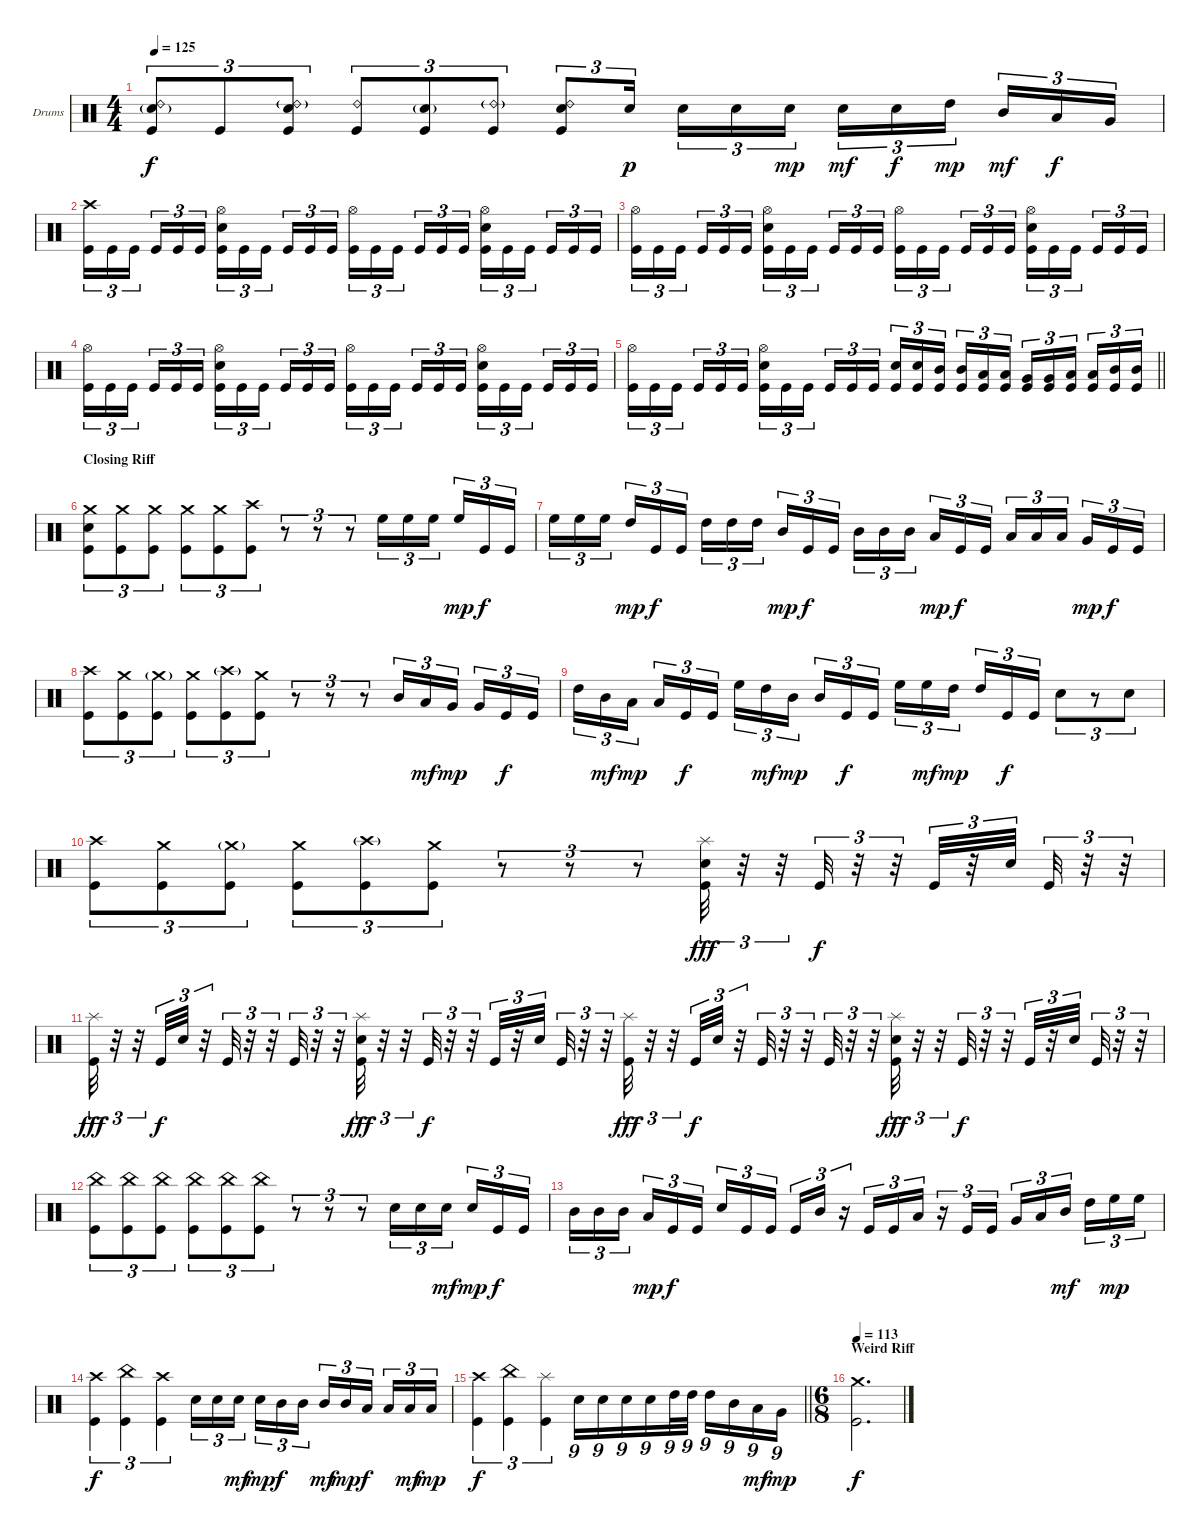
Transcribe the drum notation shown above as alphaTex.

\bracketExtendMode nobrackets
\firstSystemTrackNameOrientation horizontal
\otherSystemsTrackNameOrientation horizontal
\track ("Drumkit" "Drums") {instrument percussion}
\staff {score}
\articulation defaults
\ts (4 4)
\tempo 125
\clef neutral
\ks c
("Ride (bell) 2" "Snare (hit) 2"{g} "Kick (hit)").8{tu (3 2) dy f} "Kick (hit)".8{tu (3 2)} ("Ride (bell) 2"{g} "Snare (hit) 2" "Kick (hit)").8{tu (3 2)} ("Ride (bell) 2" "Kick (hit)").8{tu (3 2)} ("Snare (hit) 2"{g} "Kick (hit)").8{tu (3 2)} ("Ride (bell) 2"{g} "Kick (hit)").8{tu (3 2)} ("Ride (bell) 2" "Snare (hit) 2" "Kick (hit)").8{tu (3 2)} "Snare (hit) 2".16{tu (3 2) dy p} "Snare (hit) 2".16{tu (3 2)} "Snare (hit) 2".16{tu (3 2)} "Snare (hit) 2".16{tu (3 2) dy mp} "Snare (hit) 2".16{tu (3 2) dy mf} "Snare (hit) 2".16{tu (3 2) dy f} "High Tom (hit)".16{tu (3 2) dy mp} "Mid Tom (hit)".16{tu (3 2) dy mf} "Low Tom (hit)".16{tu (3 2) dy f} "Very Low Tom (hit)".16{tu (3 2)} |
("Crash high (hit)" "Kick (hit)").16{tu (3 2)} "Kick (hit)".16{tu (3 2)} "Kick (hit)".16{tu (3 2)} "Kick (hit)".16{tu (3 2)} "Kick (hit)".16{tu (3 2)} "Kick (hit)".16{tu (3 2)} ("Hi-Hat (open)" "Snare (hit) 2" "Kick (hit)").16{tu (3 2)} "Kick (hit)".16{tu (3 2)} "Kick (hit)".16{tu (3 2)} "Kick (hit)".16{tu (3 2)} "Kick (hit)".16{tu (3 2)} "Kick (hit)".16{tu (3 2)} ("Hi-Hat (open)" "Kick (hit)").16{tu (3 2)} "Kick (hit)".16{tu (3 2)} "Kick (hit)".16{tu (3 2)} "Kick (hit)".16{tu (3 2)} "Kick (hit)".16{tu (3 2)} "Kick (hit)".16{tu (3 2)} ("Hi-Hat (open)" "Snare (hit) 2" "Kick (hit)").16{tu (3 2)} "Kick (hit)".16{tu (3 2)} "Kick (hit)".16{tu (3 2)} "Kick (hit)".16{tu (3 2)} "Kick (hit)".16{tu (3 2)} "Kick (hit)".16{tu (3 2)} |
("Hi-Hat (open)" "Kick (hit)").16{tu (3 2)} "Kick (hit)".16{tu (3 2)} "Kick (hit)".16{tu (3 2)} "Kick (hit)".16{tu (3 2)} "Kick (hit)".16{tu (3 2)} "Kick (hit)".16{tu (3 2)} ("Hi-Hat (open)" "Snare (hit) 2" "Kick (hit)").16{tu (3 2)} "Kick (hit)".16{tu (3 2)} "Kick (hit)".16{tu (3 2)} "Kick (hit)".16{tu (3 2)} "Kick (hit)".16{tu (3 2)} "Kick (hit)".16{tu (3 2)} ("Hi-Hat (open)" "Kick (hit)").16{tu (3 2)} "Kick (hit)".16{tu (3 2)} "Kick (hit)".16{tu (3 2)} "Kick (hit)".16{tu (3 2)} "Kick (hit)".16{tu (3 2)} "Kick (hit)".16{tu (3 2)} ("Hi-Hat (open)" "Snare (hit) 2" "Kick (hit)").16{tu (3 2)} "Kick (hit)".16{tu (3 2)} "Kick (hit)".16{tu (3 2)} "Kick (hit)".16{tu (3 2)} "Kick (hit)".16{tu (3 2)} "Kick (hit)".16{tu (3 2)} |
("Hi-Hat (open)" "Kick (hit)").16{tu (3 2)} "Kick (hit)".16{tu (3 2)} "Kick (hit)".16{tu (3 2)} "Kick (hit)".16{tu (3 2)} "Kick (hit)".16{tu (3 2)} "Kick (hit)".16{tu (3 2)} ("Hi-Hat (open)" "Snare (hit) 2" "Kick (hit)").16{tu (3 2)} "Kick (hit)".16{tu (3 2)} "Kick (hit)".16{tu (3 2)} "Kick (hit)".16{tu (3 2)} "Kick (hit)".16{tu (3 2)} "Kick (hit)".16{tu (3 2)} ("Hi-Hat (open)" "Kick (hit)").16{tu (3 2)} "Kick (hit)".16{tu (3 2)} "Kick (hit)".16{tu (3 2)} "Kick (hit)".16{tu (3 2)} "Kick (hit)".16{tu (3 2)} "Kick (hit)".16{tu (3 2)} ("Hi-Hat (open)" "Snare (hit) 2" "Kick (hit)").16{tu (3 2)} "Kick (hit)".16{tu (3 2)} "Kick (hit)".16{tu (3 2)} "Kick (hit)".16{tu (3 2)} "Kick (hit)".16{tu (3 2)} "Kick (hit)".16{tu (3 2)} |
\barLineRight lightlight
("Hi-Hat (open)" "Kick (hit)").16{tu (3 2)} "Kick (hit)".16{tu (3 2)} "Kick (hit)".16{tu (3 2)} "Kick (hit)".16{tu (3 2)} "Kick (hit)".16{tu (3 2)} "Kick (hit)".16{tu (3 2)} ("Hi-Hat (open)" "Snare (hit) 2" "Kick (hit)").16{tu (3 2)} "Kick (hit)".16{tu (3 2)} "Kick (hit)".16{tu (3 2)} "Kick (hit)".16{tu (3 2)} "Kick (hit)".16{tu (3 2)} "Kick (hit)".16{tu (3 2)} ("Snare (hit) 2" "Kick (hit)").16{tu (3 2)} ("Snare (hit) 2" "Kick (hit)").16{tu (3 2)} ("Mid Tom (hit)" "Kick (hit)").16{tu (3 2)} ("Mid Tom (hit)" "Kick (hit)").16{tu (3 2)} ("Low Tom (hit)" "Kick (hit)").16{tu (3 2)} ("Low Tom (hit)" "Kick (hit)").16{tu (3 2)} ("Very Low Tom (hit)" "Kick (hit)").16{tu (3 2)} ("Very Low Tom (hit)" "Kick (hit)").16{tu (3 2)} ("Low Tom (hit)" "Kick (hit)").16{tu (3 2)} ("Low Tom (hit)" "Kick (hit)").16{tu (3 2)} ("Mid Tom (hit)" "Kick (hit)").16{tu (3 2)} ("Mid Tom (hit)" "Kick (hit)").16{tu (3 2)} |
\section ("" "Closing Riff")
("Crash medium (hit)" "Snare (hit) 2" "Kick (hit)").8{tu (3 2)} ("Crash medium (hit)" "Kick (hit)").8{tu (3 2)} ("Crash medium (hit)" "Kick (hit)").8{tu (3 2)} ("Crash medium (hit)" "Kick (hit)").8{tu (3 2)} ("Crash medium (hit)" "Kick (hit)").8{tu (3 2)} ("Crash high (hit)" "Kick (hit)").8{tu (3 2)} r.8{tu (3 2)} r.8{tu (3 2)} r.8{tu (3 2)} "High Floor Tom (hit)".16{tu (3 2)} "High Floor Tom (hit)".16{tu (3 2)} "High Floor Tom (hit)".16{tu (3 2)} "High Floor Tom (hit)".16{tu (3 2) dy mp} "Kick (hit)".16{tu (3 2) dy f} "Kick (hit)".16{tu (3 2)} |
"High Floor Tom (hit)".16{tu (3 2)} "High Floor Tom (hit)".16{tu (3 2)} "High Floor Tom (hit)".16{tu (3 2)} "High Tom (hit)".16{tu (3 2) dy mp} "Kick (hit)".16{tu (3 2) dy f} "Kick (hit)".16{tu (3 2)} "High Tom (hit)".16{tu (3 2)} "High Tom (hit)".16{tu (3 2)} "High Tom (hit)".16{tu (3 2)} "Mid Tom (hit)".16{tu (3 2) dy mp} "Kick (hit)".16{tu (3 2) dy f} "Kick (hit)".16{tu (3 2)} "Mid Tom (hit)".16{tu (3 2)} "Mid Tom (hit)".16{tu (3 2)} "Mid Tom (hit)".16{tu (3 2)} "Low Tom (hit)".16{tu (3 2) dy mp} "Kick (hit)".16{tu (3 2) dy f} "Kick (hit)".16{tu (3 2)} "Low Tom (hit)".16{tu (3 2)} "Low Tom (hit)".16{tu (3 2)} "Low Tom (hit)".16{tu (3 2)} "Very Low Tom (hit)".16{tu (3 2) dy mp} "Kick (hit)".16{tu (3 2) dy f} "Kick (hit)".16{tu (3 2)} |
("Crash high (hit)" "Kick (hit)").8{tu (3 2)} ("Crash medium (hit)" "Kick (hit)").8{tu (3 2)} ("Crash medium (hit)"{g} "Kick (hit)").8{tu (3 2)} ("Crash medium (hit)" "Kick (hit)").8{tu (3 2)} ("Crash high (hit)"{g} "Kick (hit)").8{tu (3 2)} ("Crash medium (hit)" "Kick (hit)").8{tu (3 2)} r.8{tu (3 2)} r.8{tu (3 2)} r.8{tu (3 2)} "Mid Tom (hit)".16{tu (3 2)} "Low Tom (hit)".16{tu (3 2) dy mf} "Very Low Tom (hit)".16{tu (3 2) dy mp} "Very Low Tom (hit)".16{tu (3 2)} "Kick (hit)".16{tu (3 2) dy f} "Kick (hit)".16{tu (3 2)} |
"High Tom (hit)".16{tu (3 2)} "Mid Tom (hit)".16{tu (3 2) dy mf} "Low Tom (hit)".16{tu (3 2) dy mp} "Low Tom (hit)".16{tu (3 2)} "Kick (hit)".16{tu (3 2) dy f} "Kick (hit)".16{tu (3 2)} "High Floor Tom (hit)".16{tu (3 2)} "High Tom (hit)".16{tu (3 2) dy mf} "Mid Tom (hit)".16{tu (3 2) dy mp} "Mid Tom (hit)".16{tu (3 2)} "Kick (hit)".16{tu (3 2) dy f} "Kick (hit)".16{tu (3 2)} "High Floor Tom (hit)".16{tu (3 2)} "High Floor Tom (hit)".16{tu (3 2) dy mf} "High Tom (hit)".16{tu (3 2) dy mp} "High Tom (hit)".16{tu (3 2)} "Kick (hit)".16{tu (3 2) dy f} "Kick (hit)".16{tu (3 2)} "Snare (hit) 2".8{tu (3 2)} r.8{tu (3 2)} "Snare (hit) 2".8{tu (3 2)} |
("Crash high (hit)" "Kick (hit)").8{tu (3 2)} ("Crash medium (hit)" "Kick (hit)").8{tu (3 2)} ("Crash medium (hit)"{g} "Kick (hit)").8{tu (3 2)} ("Crash medium (hit)" "Kick (hit)").8{tu (3 2)} ("Crash high (hit)"{g} "Kick (hit)").8{tu (3 2)} ("Crash medium (hit)" "Kick (hit)").8{tu (3 2)} r.8{tu (3 2)} r.8{tu (3 2)} r.8{tu (3 2)} ("Splash (hit)" "Snare (hit) 2" "Kick (hit)").32{tu (3 2) dy fff} r.32{tu (3 2)} r.32{tu (3 2)} "Kick (hit)".32{tu (3 2) dy f} r.32{tu (3 2)} r.32{tu (3 2)} "Kick (hit)".32{tu (3 2)} r.32{tu (3 2)} "Snare (hit) 2".32{tu (3 2)} "Kick (hit)".32{tu (3 2)} r.32{tu (3 2)} r.32{tu (3 2)} |
("Splash (hit)" "Kick (hit)").32{tu (3 2) dy fff} r.32{tu (3 2)} r.32{tu (3 2)} "Kick (hit)".32{tu (3 2) dy f} "Snare (hit) 2".32{tu (3 2)} r.32{tu (3 2)} "Kick (hit)".32{tu (3 2)} r.32{tu (3 2)} r.32{tu (3 2)} "Kick (hit)".32{tu (3 2)} r.32{tu (3 2)} r.32{tu (3 2)} ("Splash (hit)" "Snare (hit) 2" "Kick (hit)").32{tu (3 2) dy fff} r.32{tu (3 2)} r.32{tu (3 2)} "Kick (hit)".32{tu (3 2) dy f} r.32{tu (3 2)} r.32{tu (3 2)} "Kick (hit)".32{tu (3 2)} r.32{tu (3 2)} "Snare (hit) 2".32{tu (3 2)} "Kick (hit)".32{tu (3 2)} r.32{tu (3 2)} r.32{tu (3 2)} ("Splash (hit)" "Kick (hit)").32{tu (3 2) dy fff} r.32{tu (3 2)} r.32{tu (3 2)} "Kick (hit)".32{tu (3 2) dy f} "Snare (hit) 2".32{tu (3 2)} r.32{tu (3 2)} "Kick (hit)".32{tu (3 2)} r.32{tu (3 2)} r.32{tu (3 2)} "Kick (hit)".32{tu (3 2)} r.32{tu (3 2)} r.32{tu (3 2)} ("Splash (hit)" "Snare (hit) 2" "Kick (hit)").32{tu (3 2) dy fff} r.32{tu (3 2)} r.32{tu (3 2)} "Kick (hit)".32{tu (3 2) dy f} r.32{tu (3 2)} r.32{tu (3 2)} "Kick (hit)".32{tu (3 2)} r.32{tu (3 2)} "Snare (hit) 2".32{tu (3 2)} "Kick (hit)".32{tu (3 2)} r.32{tu (3 2)} r.32{tu (3 2)} |
("China (hit)" "Kick (hit)").8{tu (3 2)} ("China (hit)" "Kick (hit)").8{tu (3 2)} ("China (hit)" "Kick (hit)").8{tu (3 2)} ("China (hit)" "Kick (hit)").8{tu (3 2)} ("China (hit)" "Kick (hit)").8{tu (3 2)} ("China (hit)" "Kick (hit)").8{tu (3 2)} r.8{tu (3 2)} r.8{tu (3 2)} r.8{tu (3 2)} "Snare (hit) 2".16{tu (3 2)} "Snare (hit) 2".16{tu (3 2)} "Snare (hit) 2".16{tu (3 2) dy mf} "Snare (hit) 2".16{tu (3 2) dy mp} "Kick (hit)".16{tu (3 2) dy f} "Kick (hit)".16{tu (3 2)} |
"Mid Tom (hit)".16{tu (3 2)} "Mid Tom (hit)".16{tu (3 2)} "Mid Tom (hit)".16{tu (3 2)} "Low Tom (hit)".16{tu (3 2) dy mp} "Kick (hit)".16{tu (3 2) dy f} "Kick (hit)".16{tu (3 2)} "Snare (hit) 2".16{tu (3 2)} "Kick (hit)".16{tu (3 2)} "Kick (hit)".16{tu (3 2)} "Kick (hit)".16{tu (3 2)} "Mid Tom (hit)".16{tu (3 2)} r.16{tu (3 2)} "Kick (hit)".16{tu (3 2)} "Kick (hit)".16{tu (3 2)} "Low Tom (hit)".16{tu (3 2)} r.16{tu (3 2)} "Kick (hit)".16{tu (3 2)} "Kick (hit)".16{tu (3 2)} "Very Low Tom (hit)".16{tu (3 2)} "Low Tom (hit)".16{tu (3 2)} "Mid Tom (hit)".16{tu (3 2) dy mf} "High Tom (hit)".16{tu (3 2)} "High Floor Tom (hit)".16{tu (3 2) dy mp} "High Floor Tom (hit)".16{tu (3 2)} |
("Crash high (hit)" "Kick (hit)").4{tu (3 2) dy f} ("China (hit)" "Kick (hit)").4{tu (3 2)} ("Crash high (hit)" "Kick (hit)").4{tu (3 2)} "Snare (hit) 2".16{tu (3 2)} "Snare (hit) 2".16{tu (3 2)} "Snare (hit) 2".16{tu (3 2) dy mf} "Snare (hit) 2".16{tu (3 2) dy mp} "Mid Tom (hit)".16{tu (3 2) dy f} "Mid Tom (hit)".16{tu (3 2)} "Mid Tom (hit)".16{tu (3 2) dy mf} "Mid Tom (hit)".16{tu (3 2) dy mp} "Low Tom (hit)".16{tu (3 2) dy f} "Low Tom (hit)".16{tu (3 2)} "Low Tom (hit)".16{tu (3 2) dy mf} "Low Tom (hit)".16{tu (3 2) dy mp} |
\barLineRight lightlight
("Crash high (hit)" "Kick (hit)").4{tu (3 2) dy f} ("China (hit)" "Kick (hit)").4{tu (3 2)} ("Splash (hit)" "Kick (hit)").4{tu (3 2)} "Snare (hit) 2".16{tu (9 8)} "Snare (hit) 2".16{tu (9 8)} "Snare (hit) 2".16{tu (9 8)} "Snare (hit) 2".16{tu (9 8)} "High Tom (hit)".32{tu (9 8)} "High Tom (hit)".32{tu (9 8)} "High Tom (hit)".16{tu (9 8)} "Mid Tom (hit)".16{tu (9 8)} "Low Tom (hit)".16{tu (9 8) dy mf} "Very Low Tom (hit)".16{tu (9 8) dy mp} |
\ts (6 8)
\beaming (8 3 3)
\section ("" "Weird Riff")
\tempo 113
("Crash medium (hit)" "Kick (hit)").2{d dy f}
